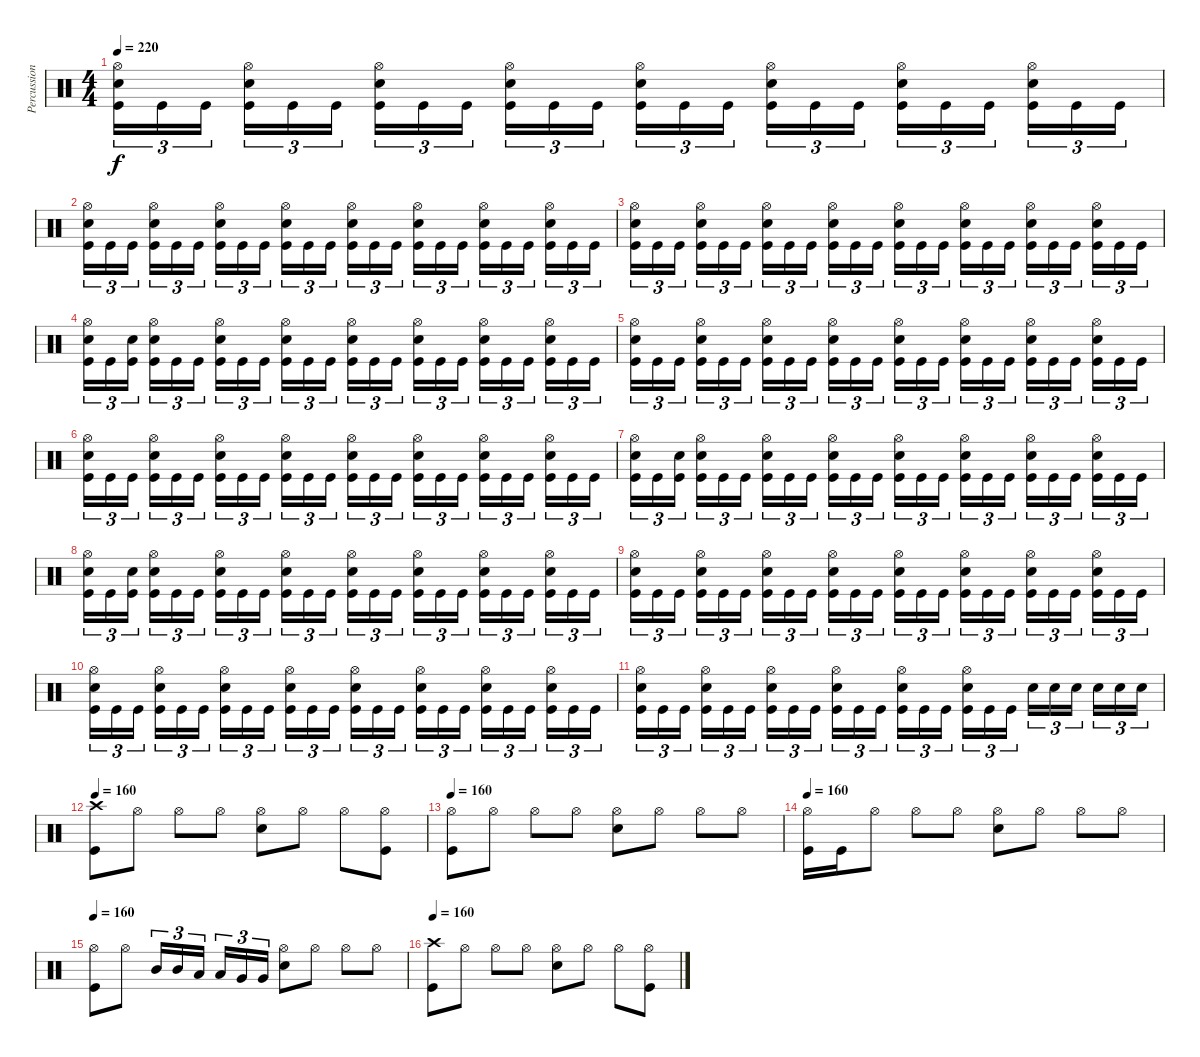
\track ("Percussion" "Percussion") {instrument percussion}
\staff {score}
\articulation defaults
\ts (4 4)
\tempo 220
\clef neutral
\ks c
("Hi-Hat (open)" "Electric Snare (hit)" "Kick (hit)").16{tu (3 2) dy f} "Kick (hit)".16{tu (3 2)} "Kick (hit)".16{tu (3 2)} ("Hi-Hat (open)" "Electric Snare (hit)" "Kick (hit)").16{tu (3 2)} "Kick (hit)".16{tu (3 2)} "Kick (hit)".16{tu (3 2)} ("Hi-Hat (open)" "Electric Snare (hit)" "Kick (hit)").16{tu (3 2)} "Kick (hit)".16{tu (3 2)} "Kick (hit)".16{tu (3 2)} ("Hi-Hat (open)" "Electric Snare (hit)" "Kick (hit)").16{tu (3 2)} "Kick (hit)".16{tu (3 2)} "Kick (hit)".16{tu (3 2)} ("Hi-Hat (open)" "Electric Snare (hit)" "Kick (hit)").16{tu (3 2)} "Kick (hit)".16{tu (3 2)} "Kick (hit)".16{tu (3 2)} ("Hi-Hat (open)" "Electric Snare (hit)" "Kick (hit)").16{tu (3 2)} "Kick (hit)".16{tu (3 2)} "Kick (hit)".16{tu (3 2)} ("Hi-Hat (open)" "Electric Snare (hit)" "Kick (hit)").16{tu (3 2)} "Kick (hit)".16{tu (3 2)} "Kick (hit)".16{tu (3 2)} ("Hi-Hat (open)" "Electric Snare (hit)" "Kick (hit)").16{tu (3 2)} "Kick (hit)".16{tu (3 2)} "Kick (hit)".16{tu (3 2)} |
("Hi-Hat (open)" "Electric Snare (hit)" "Kick (hit)").16{tu (3 2)} "Kick (hit)".16{tu (3 2)} "Kick (hit)".16{tu (3 2)} ("Hi-Hat (open)" "Electric Snare (hit)" "Kick (hit)").16{tu (3 2)} "Kick (hit)".16{tu (3 2)} "Kick (hit)".16{tu (3 2)} ("Hi-Hat (open)" "Electric Snare (hit)" "Kick (hit)").16{tu (3 2)} "Kick (hit)".16{tu (3 2)} "Kick (hit)".16{tu (3 2)} ("Hi-Hat (open)" "Electric Snare (hit)" "Kick (hit)").16{tu (3 2)} "Kick (hit)".16{tu (3 2)} "Kick (hit)".16{tu (3 2)} ("Hi-Hat (open)" "Electric Snare (hit)" "Kick (hit)").16{tu (3 2)} "Kick (hit)".16{tu (3 2)} "Kick (hit)".16{tu (3 2)} ("Hi-Hat (open)" "Electric Snare (hit)" "Kick (hit)").16{tu (3 2)} "Kick (hit)".16{tu (3 2)} "Kick (hit)".16{tu (3 2)} ("Hi-Hat (open)" "Electric Snare (hit)" "Kick (hit)").16{tu (3 2)} "Kick (hit)".16{tu (3 2)} "Kick (hit)".16{tu (3 2)} ("Hi-Hat (open)" "Electric Snare (hit)" "Kick (hit)").16{tu (3 2)} "Kick (hit)".16{tu (3 2)} "Kick (hit)".16{tu (3 2)} |
("Hi-Hat (open)" "Electric Snare (hit)" "Kick (hit)").16{tu (3 2)} "Kick (hit)".16{tu (3 2)} "Kick (hit)".16{tu (3 2)} ("Hi-Hat (open)" "Electric Snare (hit)" "Kick (hit)").16{tu (3 2)} "Kick (hit)".16{tu (3 2)} "Kick (hit)".16{tu (3 2)} ("Hi-Hat (open)" "Electric Snare (hit)" "Kick (hit)").16{tu (3 2)} "Kick (hit)".16{tu (3 2)} "Kick (hit)".16{tu (3 2)} ("Hi-Hat (open)" "Electric Snare (hit)" "Kick (hit)").16{tu (3 2)} "Kick (hit)".16{tu (3 2)} "Kick (hit)".16{tu (3 2)} ("Hi-Hat (open)" "Electric Snare (hit)" "Kick (hit)").16{tu (3 2)} "Kick (hit)".16{tu (3 2)} "Kick (hit)".16{tu (3 2)} ("Hi-Hat (open)" "Electric Snare (hit)" "Kick (hit)").16{tu (3 2)} "Kick (hit)".16{tu (3 2)} "Kick (hit)".16{tu (3 2)} ("Hi-Hat (open)" "Electric Snare (hit)" "Kick (hit)").16{tu (3 2)} "Kick (hit)".16{tu (3 2)} "Kick (hit)".16{tu (3 2)} ("Hi-Hat (open)" "Electric Snare (hit)" "Kick (hit)").16{tu (3 2)} "Kick (hit)".16{tu (3 2)} "Kick (hit)".16{tu (3 2)} |
("Hi-Hat (open)" "Electric Snare (hit)" "Kick (hit)").16{tu (3 2)} "Kick (hit)".16{tu (3 2)} ("Electric Snare (hit)" "Kick (hit)").16{tu (3 2)} ("Hi-Hat (open)" "Electric Snare (hit)" "Kick (hit)").16{tu (3 2)} "Kick (hit)".16{tu (3 2)} "Kick (hit)".16{tu (3 2)} ("Hi-Hat (open)" "Electric Snare (hit)" "Kick (hit)").16{tu (3 2)} "Kick (hit)".16{tu (3 2)} "Kick (hit)".16{tu (3 2)} ("Hi-Hat (open)" "Electric Snare (hit)" "Kick (hit)").16{tu (3 2)} "Kick (hit)".16{tu (3 2)} "Kick (hit)".16{tu (3 2)} ("Hi-Hat (open)" "Electric Snare (hit)" "Kick (hit)").16{tu (3 2)} "Kick (hit)".16{tu (3 2)} "Kick (hit)".16{tu (3 2)} ("Hi-Hat (open)" "Electric Snare (hit)" "Kick (hit)").16{tu (3 2)} "Kick (hit)".16{tu (3 2)} "Kick (hit)".16{tu (3 2)} ("Hi-Hat (open)" "Electric Snare (hit)" "Kick (hit)").16{tu (3 2)} "Kick (hit)".16{tu (3 2)} "Kick (hit)".16{tu (3 2)} ("Hi-Hat (open)" "Electric Snare (hit)" "Kick (hit)").16{tu (3 2)} "Kick (hit)".16{tu (3 2)} "Kick (hit)".16{tu (3 2)} |
("Hi-Hat (open)" "Electric Snare (hit)" "Kick (hit)").16{tu (3 2)} "Kick (hit)".16{tu (3 2)} "Kick (hit)".16{tu (3 2)} ("Hi-Hat (open)" "Electric Snare (hit)" "Kick (hit)").16{tu (3 2)} "Kick (hit)".16{tu (3 2)} "Kick (hit)".16{tu (3 2)} ("Hi-Hat (open)" "Electric Snare (hit)" "Kick (hit)").16{tu (3 2)} "Kick (hit)".16{tu (3 2)} "Kick (hit)".16{tu (3 2)} ("Hi-Hat (open)" "Electric Snare (hit)" "Kick (hit)").16{tu (3 2)} "Kick (hit)".16{tu (3 2)} "Kick (hit)".16{tu (3 2)} ("Hi-Hat (open)" "Electric Snare (hit)" "Kick (hit)").16{tu (3 2)} "Kick (hit)".16{tu (3 2)} "Kick (hit)".16{tu (3 2)} ("Hi-Hat (open)" "Electric Snare (hit)" "Kick (hit)").16{tu (3 2)} "Kick (hit)".16{tu (3 2)} "Kick (hit)".16{tu (3 2)} ("Hi-Hat (open)" "Electric Snare (hit)" "Kick (hit)").16{tu (3 2)} "Kick (hit)".16{tu (3 2)} "Kick (hit)".16{tu (3 2)} ("Hi-Hat (open)" "Electric Snare (hit)" "Kick (hit)").16{tu (3 2)} "Kick (hit)".16{tu (3 2)} "Kick (hit)".16{tu (3 2)} |
("Hi-Hat (open)" "Electric Snare (hit)" "Kick (hit)").16{tu (3 2)} "Kick (hit)".16{tu (3 2)} "Kick (hit)".16{tu (3 2)} ("Hi-Hat (open)" "Electric Snare (hit)" "Kick (hit)").16{tu (3 2)} "Kick (hit)".16{tu (3 2)} "Kick (hit)".16{tu (3 2)} ("Hi-Hat (open)" "Electric Snare (hit)" "Kick (hit)").16{tu (3 2)} "Kick (hit)".16{tu (3 2)} "Kick (hit)".16{tu (3 2)} ("Hi-Hat (open)" "Electric Snare (hit)" "Kick (hit)").16{tu (3 2)} "Kick (hit)".16{tu (3 2)} "Kick (hit)".16{tu (3 2)} ("Hi-Hat (open)" "Electric Snare (hit)" "Kick (hit)").16{tu (3 2)} "Kick (hit)".16{tu (3 2)} "Kick (hit)".16{tu (3 2)} ("Hi-Hat (open)" "Electric Snare (hit)" "Kick (hit)").16{tu (3 2)} "Kick (hit)".16{tu (3 2)} "Kick (hit)".16{tu (3 2)} ("Hi-Hat (open)" "Electric Snare (hit)" "Kick (hit)").16{tu (3 2)} "Kick (hit)".16{tu (3 2)} "Kick (hit)".16{tu (3 2)} ("Hi-Hat (open)" "Electric Snare (hit)" "Kick (hit)").16{tu (3 2)} "Kick (hit)".16{tu (3 2)} "Kick (hit)".16{tu (3 2)} |
("Hi-Hat (open)" "Electric Snare (hit)" "Kick (hit)").16{tu (3 2)} "Kick (hit)".16{tu (3 2)} ("Electric Snare (hit)" "Kick (hit)").16{tu (3 2)} ("Hi-Hat (open)" "Electric Snare (hit)" "Kick (hit)").16{tu (3 2)} "Kick (hit)".16{tu (3 2)} "Kick (hit)".16{tu (3 2)} ("Hi-Hat (open)" "Electric Snare (hit)" "Kick (hit)").16{tu (3 2)} "Kick (hit)".16{tu (3 2)} "Kick (hit)".16{tu (3 2)} ("Hi-Hat (open)" "Electric Snare (hit)" "Kick (hit)").16{tu (3 2)} "Kick (hit)".16{tu (3 2)} "Kick (hit)".16{tu (3 2)} ("Hi-Hat (open)" "Electric Snare (hit)" "Kick (hit)").16{tu (3 2)} "Kick (hit)".16{tu (3 2)} "Kick (hit)".16{tu (3 2)} ("Hi-Hat (open)" "Electric Snare (hit)" "Kick (hit)").16{tu (3 2)} "Kick (hit)".16{tu (3 2)} "Kick (hit)".16{tu (3 2)} ("Hi-Hat (open)" "Electric Snare (hit)" "Kick (hit)").16{tu (3 2)} "Kick (hit)".16{tu (3 2)} "Kick (hit)".16{tu (3 2)} ("Hi-Hat (open)" "Electric Snare (hit)" "Kick (hit)").16{tu (3 2)} "Kick (hit)".16{tu (3 2)} "Kick (hit)".16{tu (3 2)} |
("Hi-Hat (open)" "Electric Snare (hit)" "Kick (hit)").16{tu (3 2)} "Kick (hit)".16{tu (3 2)} ("Electric Snare (hit)" "Kick (hit)").16{tu (3 2)} ("Hi-Hat (open)" "Electric Snare (hit)" "Kick (hit)").16{tu (3 2)} "Kick (hit)".16{tu (3 2)} "Kick (hit)".16{tu (3 2)} ("Hi-Hat (open)" "Electric Snare (hit)" "Kick (hit)").16{tu (3 2)} "Kick (hit)".16{tu (3 2)} "Kick (hit)".16{tu (3 2)} ("Hi-Hat (open)" "Electric Snare (hit)" "Kick (hit)").16{tu (3 2)} "Kick (hit)".16{tu (3 2)} "Kick (hit)".16{tu (3 2)} ("Hi-Hat (open)" "Electric Snare (hit)" "Kick (hit)").16{tu (3 2)} "Kick (hit)".16{tu (3 2)} "Kick (hit)".16{tu (3 2)} ("Hi-Hat (open)" "Electric Snare (hit)" "Kick (hit)").16{tu (3 2)} "Kick (hit)".16{tu (3 2)} "Kick (hit)".16{tu (3 2)} ("Hi-Hat (open)" "Electric Snare (hit)" "Kick (hit)").16{tu (3 2)} "Kick (hit)".16{tu (3 2)} "Kick (hit)".16{tu (3 2)} ("Hi-Hat (open)" "Electric Snare (hit)" "Kick (hit)").16{tu (3 2)} "Kick (hit)".16{tu (3 2)} "Kick (hit)".16{tu (3 2)} |
("Hi-Hat (open)" "Electric Snare (hit)" "Kick (hit)").16{tu (3 2)} "Kick (hit)".16{tu (3 2)} "Kick (hit)".16{tu (3 2)} ("Hi-Hat (open)" "Electric Snare (hit)" "Kick (hit)").16{tu (3 2)} "Kick (hit)".16{tu (3 2)} "Kick (hit)".16{tu (3 2)} ("Hi-Hat (open)" "Electric Snare (hit)" "Kick (hit)").16{tu (3 2)} "Kick (hit)".16{tu (3 2)} "Kick (hit)".16{tu (3 2)} ("Hi-Hat (open)" "Electric Snare (hit)" "Kick (hit)").16{tu (3 2)} "Kick (hit)".16{tu (3 2)} "Kick (hit)".16{tu (3 2)} ("Hi-Hat (open)" "Electric Snare (hit)" "Kick (hit)").16{tu (3 2)} "Kick (hit)".16{tu (3 2)} "Kick (hit)".16{tu (3 2)} ("Hi-Hat (open)" "Electric Snare (hit)" "Kick (hit)").16{tu (3 2)} "Kick (hit)".16{tu (3 2)} "Kick (hit)".16{tu (3 2)} ("Hi-Hat (open)" "Electric Snare (hit)" "Kick (hit)").16{tu (3 2)} "Kick (hit)".16{tu (3 2)} "Kick (hit)".16{tu (3 2)} ("Hi-Hat (open)" "Electric Snare (hit)" "Kick (hit)").16{tu (3 2)} "Kick (hit)".16{tu (3 2)} "Kick (hit)".16{tu (3 2)} |
("Hi-Hat (open)" "Electric Snare (hit)" "Kick (hit)").16{tu (3 2)} "Kick (hit)".16{tu (3 2)} "Kick (hit)".16{tu (3 2)} ("Hi-Hat (open)" "Electric Snare (hit)" "Kick (hit)").16{tu (3 2)} "Kick (hit)".16{tu (3 2)} "Kick (hit)".16{tu (3 2)} ("Hi-Hat (open)" "Electric Snare (hit)" "Kick (hit)").16{tu (3 2)} "Kick (hit)".16{tu (3 2)} "Kick (hit)".16{tu (3 2)} ("Hi-Hat (open)" "Electric Snare (hit)" "Kick (hit)").16{tu (3 2)} "Kick (hit)".16{tu (3 2)} "Kick (hit)".16{tu (3 2)} ("Hi-Hat (open)" "Electric Snare (hit)" "Kick (hit)").16{tu (3 2)} "Kick (hit)".16{tu (3 2)} "Kick (hit)".16{tu (3 2)} ("Hi-Hat (open)" "Electric Snare (hit)" "Kick (hit)").16{tu (3 2)} "Kick (hit)".16{tu (3 2)} "Kick (hit)".16{tu (3 2)} ("Hi-Hat (open)" "Electric Snare (hit)" "Kick (hit)").16{tu (3 2)} "Kick (hit)".16{tu (3 2)} "Kick (hit)".16{tu (3 2)} ("Hi-Hat (open)" "Electric Snare (hit)" "Kick (hit)").16{tu (3 2)} "Kick (hit)".16{tu (3 2)} "Kick (hit)".16{tu (3 2)} |
("Hi-Hat (open)" "Electric Snare (hit)" "Kick (hit)").16{tu (3 2)} "Kick (hit)".16{tu (3 2)} "Kick (hit)".16{tu (3 2)} ("Hi-Hat (open)" "Electric Snare (hit)" "Kick (hit)").16{tu (3 2)} "Kick (hit)".16{tu (3 2)} "Kick (hit)".16{tu (3 2)} ("Hi-Hat (open)" "Electric Snare (hit)" "Kick (hit)").16{tu (3 2)} "Kick (hit)".16{tu (3 2)} "Kick (hit)".16{tu (3 2)} ("Hi-Hat (open)" "Electric Snare (hit)" "Kick (hit)").16{tu (3 2)} "Kick (hit)".16{tu (3 2)} "Kick (hit)".16{tu (3 2)} ("Hi-Hat (open)" "Electric Snare (hit)" "Kick (hit)").16{tu (3 2)} "Kick (hit)".16{tu (3 2)} "Kick (hit)".16{tu (3 2)} ("Hi-Hat (open)" "Electric Snare (hit)" "Kick (hit)").16{tu (3 2)} "Kick (hit)".16{tu (3 2)} "Kick (hit)".16{tu (3 2)} "Electric Snare (hit)".16{tu (3 2)} "Electric Snare (hit)".16{tu (3 2)} "Electric Snare (hit)".16{tu (3 2)} "Electric Snare (hit)".16{tu (3 2)} "Electric Snare (hit)".16{tu (3 2)} "Electric Snare (hit)".16{tu (3 2)} |
\tempo 160
("Crash high (hit)" "Kick (hit)").8 "Hi-Hat (open)".8 "Hi-Hat (open)".8 "Hi-Hat (open)".8 ("Hi-Hat (open)" "Electric Snare (hit)").8 "Hi-Hat (open)".8 "Hi-Hat (open)".8 ("Hi-Hat (open)" "Kick (hit)").8 |
\tempo 160
("Hi-Hat (open)" "Kick (hit)").8 "Hi-Hat (open)".8 "Hi-Hat (open)".8 "Hi-Hat (open)".8 ("Hi-Hat (open)" "Electric Snare (hit)").8 "Hi-Hat (open)".8 "Hi-Hat (open)".8 "Hi-Hat (open)".8 |
\tempo 160
("Hi-Hat (open)" "Kick (hit)").16 "Kick (hit)".16 "Hi-Hat (open)".8 "Hi-Hat (open)".8 "Hi-Hat (open)".8 ("Hi-Hat (open)" "Electric Snare (hit)").8 "Hi-Hat (open)".8 "Hi-Hat (open)".8 "Hi-Hat (open)".8 |
\tempo 160
("Hi-Hat (open)" "Kick (hit)").8 "Hi-Hat (open)".8 "Mid Tom (hit)".16{tu (3 2)} "Mid Tom (hit)".16{tu (3 2)} "Low Tom (hit)".16{tu (3 2)} "Low Tom (hit)".16{tu (3 2)} "Very Low Tom (hit)".16{tu (3 2)} "Very Low Tom (hit)".16{tu (3 2)} ("Hi-Hat (open)" "Electric Snare (hit)").8 "Hi-Hat (open)".8 "Hi-Hat (open)".8 "Hi-Hat (open)".8 |
\tempo 160
("Crash high (hit)" "Kick (hit)").8 "Hi-Hat (open)".8 "Hi-Hat (open)".8 "Hi-Hat (open)".8 ("Hi-Hat (open)" "Electric Snare (hit)").8 "Hi-Hat (open)".8 "Hi-Hat (open)".8 ("Hi-Hat (open)" "Kick (hit)").8
